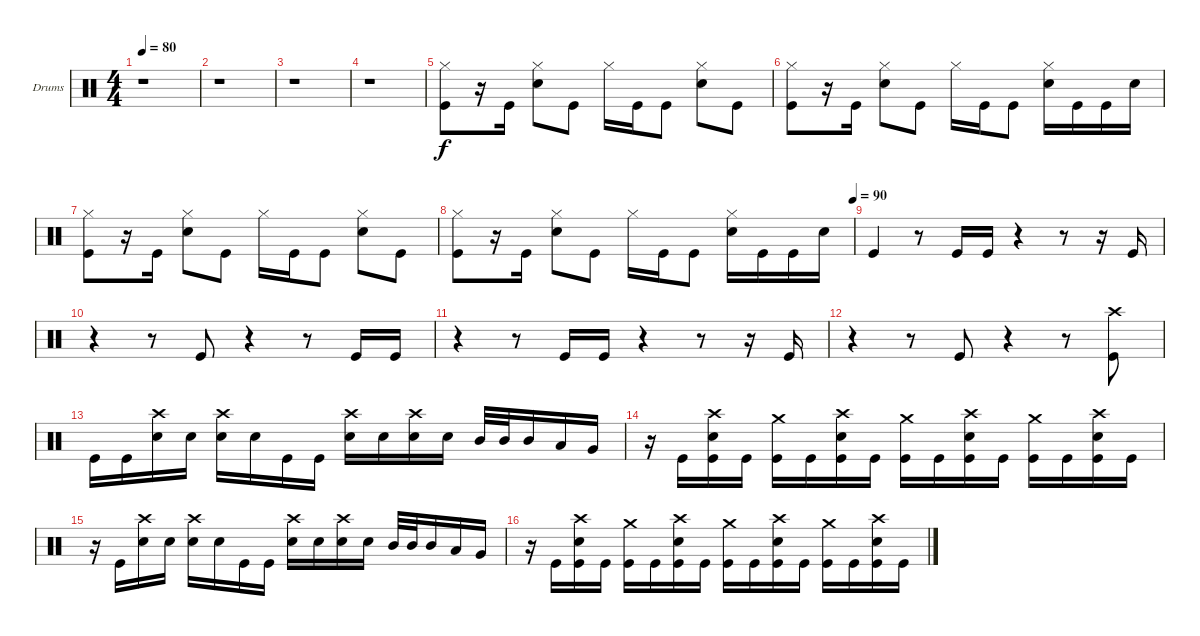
\bracketExtendMode groupsimilarinstruments
\firstSystemTrackNameOrientation horizontal
\otherSystemsTrackNameOrientation horizontal
\track ("Emile Bardou" "Drums") {instrument percussion}
\staff {score}
\articulation defaults
\ts (4 4)
\tempo 80
\clef neutral
\scale
0.474178
\ks c
r.1{dy f} |
\scale
0.262911 r.1 |
\scale
0.262911 r.1 |
\scale
0.333333 r.1 |
\scale
0.333333 ("Hi-Hat (closed)" "Kick (hit)").8 r.16 "Kick (hit)".16 ("Hi-Hat (closed)" "Snare (hit) 2").8 "Kick (hit)".8 "Hi-Hat (closed)".16 "Kick (hit)".16 "Kick (hit)".8 ("Hi-Hat (closed)" "Snare (hit) 2").8 "Kick (hit)".8 |
\scale
0.333333 ("Hi-Hat (closed)" "Kick (hit)").8 r.16 "Kick (hit)".16 ("Hi-Hat (closed)" "Snare (hit) 2").8 "Kick (hit)".8 "Hi-Hat (closed)".16 "Kick (hit)".16 "Kick (hit)".8 ("Hi-Hat (closed)" "Snare (hit) 2").16 "Kick (hit)".16 "Kick (hit)".16 "Snare (hit) 2".16 |
\scale
0.333333 ("Hi-Hat (closed)" "Kick (hit)").8 r.16 "Kick (hit)".16 ("Hi-Hat (closed)" "Snare (hit) 2").8 "Kick (hit)".8 "Hi-Hat (closed)".16 "Kick (hit)".16 "Kick (hit)".8 ("Hi-Hat (closed)" "Snare (hit) 2").8 "Kick (hit)".8 |
\tempo (90 1)
\scale
0.333333 ("Hi-Hat (closed)" "Kick (hit)").8 r.16 "Kick (hit)".16 ("Hi-Hat (closed)" "Snare (hit) 2").8 "Kick (hit)".8 "Hi-Hat (closed)".16 "Kick (hit)".16 "Kick (hit)".8 ("Hi-Hat (closed)" "Snare (hit) 2").16 "Kick (hit)".16 "Kick (hit)".16 "Snare (hit) 2".16 |
\scale
0.333333 "Kick (hit)".4 r.8 "Kick (hit)".16 "Kick (hit)".16 r.4 r.8 r.16 "Kick (hit)".16 |
\scale
0.333333 r.4 r.8 "Kick (hit)".8 r.4 r.8 "Kick (hit)".16 "Kick (hit)".16 |
\scale
0.333333 r.4 r.8 "Kick (hit)".16 "Kick (hit)".16 r.4 r.8 r.16 "Kick (hit)".16 |
\scale
0.333333 r.4 r.8 "Kick (hit)".8 r.4 r.8 ("Kick (hit)" "Crash high (hit)").8 |
\scale
0.333333 "Kick (hit)".16 "Kick (hit)".16 ("Snare (hit) 2" "Crash high (hit)").16 "Snare (hit) 2".16 ("Snare (hit) 2" "Crash high (hit)").16 "Snare (hit) 2".16 "Kick (hit)".16 "Kick (hit)".16 ("Snare (hit) 2" "Crash high (hit)").16 "Snare (hit) 2".16 ("Snare (hit) 2" "Crash high (hit)").16 "Snare (hit) 2".16 "Mid Tom (hit)".32 "Mid Tom (hit)".32 "Mid Tom (hit)".16 "Low Tom (hit)".16 "Very Low Tom (hit)".16 |
\scale
0.333333 r.16 "Kick (hit)".16 ("Crash high (hit)" "Snare (hit) 2" "Kick (hit)").16 "Kick (hit)".16 ("Crash medium (hit)" "Kick (hit)").16 "Kick (hit)".16 ("Crash high (hit)" "Snare (hit) 2" "Kick (hit)").16 "Kick (hit)".16 ("Crash medium (hit)" "Kick (hit)").16 "Kick (hit)".16 ("Crash high (hit)" "Snare (hit) 2" "Kick (hit)").16 "Kick (hit)".16 ("Crash medium (hit)" "Kick (hit)").16 "Kick (hit)".16 ("Crash high (hit)" "Snare (hit) 2" "Kick (hit)").16 "Kick (hit)".16 |
\scale
0.333333 r.16 "Kick (hit)".16 ("Snare (hit) 2" "Crash high (hit)").16 "Snare (hit) 2".16 ("Snare (hit) 2" "Crash high (hit)").16 "Snare (hit) 2".16 "Kick (hit)".16 "Kick (hit)".16 ("Snare (hit) 2" "Crash high (hit)").16 "Snare (hit) 2".16 ("Snare (hit) 2" "Crash high (hit)").16 "Snare (hit) 2".16 "Mid Tom (hit)".32 "Mid Tom (hit)".32 "Mid Tom (hit)".16 "Low Tom (hit)".16 "Very Low Tom (hit)".16 |
\scale
0.333333 r.16 "Kick (hit)".16 ("Crash high (hit)" "Snare (hit) 2" "Kick (hit)").16 "Kick (hit)".16 ("Crash medium (hit)" "Kick (hit)").16 "Kick (hit)".16 ("Crash high (hit)" "Snare (hit) 2" "Kick (hit)").16 "Kick (hit)".16 ("Crash medium (hit)" "Kick (hit)").16 "Kick (hit)".16 ("Crash high (hit)" "Snare (hit) 2" "Kick (hit)").16 "Kick (hit)".16 ("Crash medium (hit)" "Kick (hit)").16 "Kick (hit)".16 ("Crash high (hit)" "Snare (hit) 2" "Kick (hit)").16 "Kick (hit)".16
